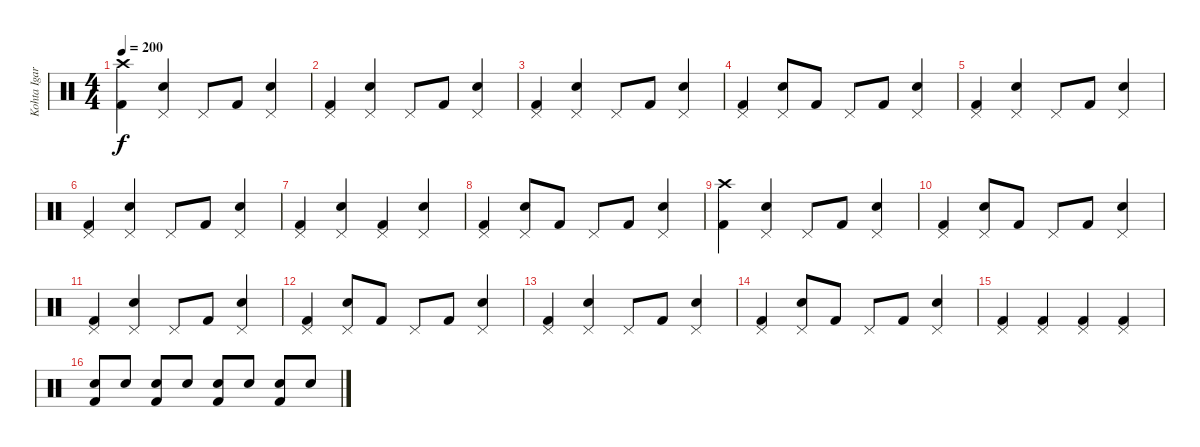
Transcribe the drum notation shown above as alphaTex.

\track ("Kohta Igarashi" "Kohta Igar") {instrument percussion}
\staff {score}
\articulation defaults
\ts (4 4)
\tempo 200
\clef neutral
\ks c
("Crash high (hit)" "Kick (hit) 2").4{dy f} ("Pedal Hi-Hat (hit)" "Electric Snare (hit)").4 "Pedal Hi-Hat (hit)".8 "Kick (hit) 2".8 ("Pedal Hi-Hat (hit)" "Electric Snare (hit)").4 |
("Pedal Hi-Hat (hit)" "Kick (hit) 2").4 ("Pedal Hi-Hat (hit)" "Electric Snare (hit)").4 "Pedal Hi-Hat (hit)".8 "Kick (hit) 2".8 ("Pedal Hi-Hat (hit)" "Electric Snare (hit)").4 |
("Pedal Hi-Hat (hit)" "Kick (hit) 2").4 ("Pedal Hi-Hat (hit)" "Electric Snare (hit)").4 "Pedal Hi-Hat (hit)".8 "Kick (hit) 2".8 ("Pedal Hi-Hat (hit)" "Electric Snare (hit)").4 |
("Pedal Hi-Hat (hit)" "Kick (hit) 2").4 ("Pedal Hi-Hat (hit)" "Electric Snare (hit)").8 "Kick (hit) 2".8 "Pedal Hi-Hat (hit)".8 "Kick (hit) 2".8 ("Pedal Hi-Hat (hit)" "Electric Snare (hit)").4 |
("Pedal Hi-Hat (hit)" "Kick (hit) 2").4 ("Pedal Hi-Hat (hit)" "Electric Snare (hit)").4 "Pedal Hi-Hat (hit)".8 "Kick (hit) 2".8 ("Pedal Hi-Hat (hit)" "Electric Snare (hit)").4 |
("Pedal Hi-Hat (hit)" "Kick (hit) 2").4 ("Pedal Hi-Hat (hit)" "Electric Snare (hit)").4 "Pedal Hi-Hat (hit)".8 "Kick (hit) 2".8 ("Pedal Hi-Hat (hit)" "Electric Snare (hit)").4 |
("Pedal Hi-Hat (hit)" "Kick (hit) 2").4 ("Pedal Hi-Hat (hit)" "Electric Snare (hit)").4 ("Pedal Hi-Hat (hit)" "Kick (hit) 2").4 ("Pedal Hi-Hat (hit)" "Electric Snare (hit)").4 |
("Pedal Hi-Hat (hit)" "Kick (hit) 2").4 ("Pedal Hi-Hat (hit)" "Electric Snare (hit)").8 "Kick (hit) 2".8 "Pedal Hi-Hat (hit)".8 "Kick (hit) 2".8 ("Pedal Hi-Hat (hit)" "Electric Snare (hit)").4 |
("Crash high (hit)" "Kick (hit) 2").4 ("Pedal Hi-Hat (hit)" "Electric Snare (hit)").4 "Pedal Hi-Hat (hit)".8 "Kick (hit) 2".8 ("Pedal Hi-Hat (hit)" "Electric Snare (hit)").4 |
("Pedal Hi-Hat (hit)" "Kick (hit) 2").4 ("Pedal Hi-Hat (hit)" "Electric Snare (hit)").8 "Kick (hit) 2".8 "Pedal Hi-Hat (hit)".8 "Kick (hit) 2".8 ("Pedal Hi-Hat (hit)" "Electric Snare (hit)").4 |
("Pedal Hi-Hat (hit)" "Kick (hit) 2").4 ("Pedal Hi-Hat (hit)" "Electric Snare (hit)").4 "Pedal Hi-Hat (hit)".8 "Kick (hit) 2".8 ("Pedal Hi-Hat (hit)" "Electric Snare (hit)").4 |
("Pedal Hi-Hat (hit)" "Kick (hit) 2").4 ("Pedal Hi-Hat (hit)" "Electric Snare (hit)").8 "Kick (hit) 2".8 "Pedal Hi-Hat (hit)".8 "Kick (hit) 2".8 ("Pedal Hi-Hat (hit)" "Electric Snare (hit)").4 |
("Pedal Hi-Hat (hit)" "Kick (hit) 2").4 ("Pedal Hi-Hat (hit)" "Electric Snare (hit)").4 "Pedal Hi-Hat (hit)".8 "Kick (hit) 2".8 ("Pedal Hi-Hat (hit)" "Electric Snare (hit)").4 |
("Pedal Hi-Hat (hit)" "Kick (hit) 2").4 ("Pedal Hi-Hat (hit)" "Electric Snare (hit)").8 "Kick (hit) 2".8 "Pedal Hi-Hat (hit)".8 "Kick (hit) 2".8 ("Pedal Hi-Hat (hit)" "Electric Snare (hit)").4 |
("Pedal Hi-Hat (hit)" "Kick (hit) 2").4 ("Pedal Hi-Hat (hit)" "Kick (hit) 2").4 ("Pedal Hi-Hat (hit)" "Kick (hit) 2").4 ("Pedal Hi-Hat (hit)" "Kick (hit) 2").4 |
("Electric Snare (hit)" "Kick (hit) 2").8 "Electric Snare (hit)".8 ("Electric Snare (hit)" "Kick (hit) 2").8 "Electric Snare (hit)".8 ("Electric Snare (hit)" "Kick (hit) 2").8 "Electric Snare (hit)".8 ("Electric Snare (hit)" "Kick (hit) 2").8 "Electric Snare (hit)".8
